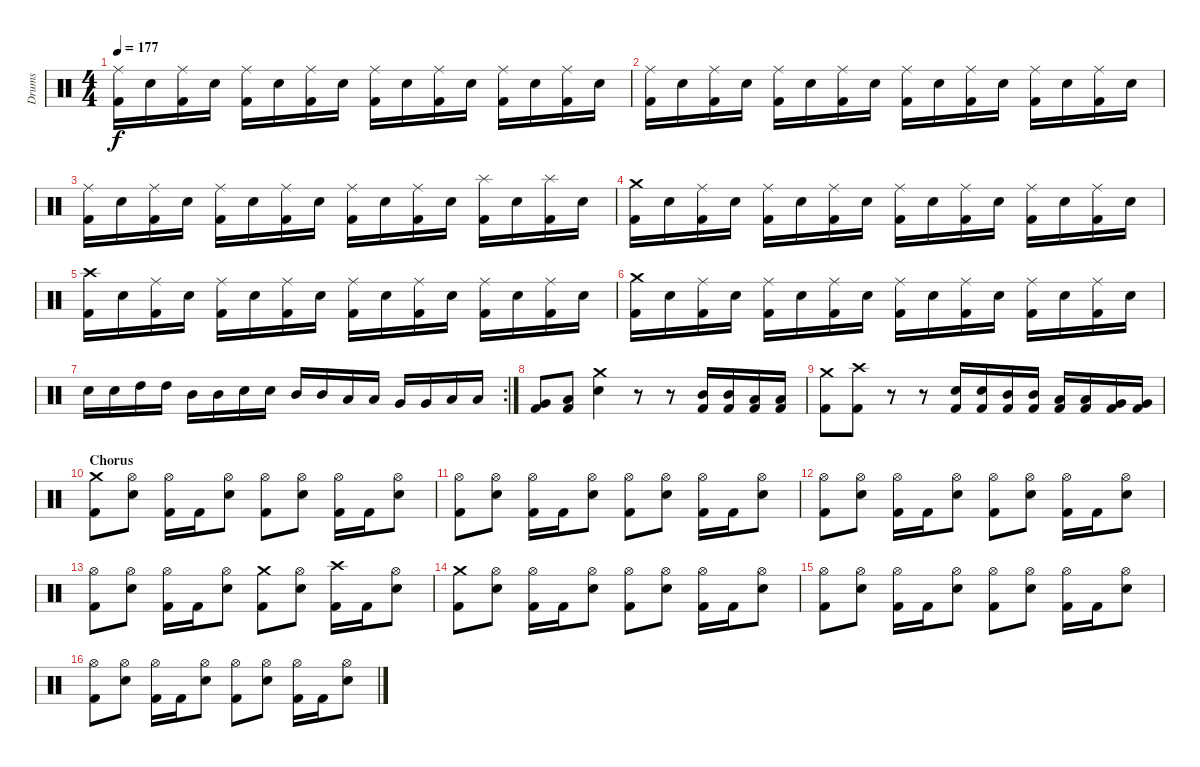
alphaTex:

\track ("Drums" "Drums") {instrument percussion}
\staff {score}
\articulation defaults
\ts (4 4)
\tempo 177
\clef neutral
\ks c
("Kick (hit) 2" "Ride (middle)").16{dy f} "Electric Snare (hit)".16 ("Kick (hit) 2" "Ride (middle)").16 "Electric Snare (hit)".16 ("Kick (hit) 2" "Ride (middle)").16 "Electric Snare (hit)".16 ("Kick (hit) 2" "Ride (middle)").16 "Electric Snare (hit)".16 ("Kick (hit) 2" "Ride (middle)").16 "Electric Snare (hit)".16 ("Kick (hit) 2" "Ride (middle)").16 "Electric Snare (hit)".16 ("Kick (hit) 2" "Ride (middle)").16 "Electric Snare (hit)".16 ("Kick (hit) 2" "Ride (middle)").16 "Electric Snare (hit)".16 |
("Kick (hit) 2" "Ride (middle)").16 "Electric Snare (hit)".16 ("Kick (hit) 2" "Ride (middle)").16 "Electric Snare (hit)".16 ("Kick (hit) 2" "Ride (middle)").16 "Electric Snare (hit)".16 ("Kick (hit) 2" "Ride (middle)").16 "Electric Snare (hit)".16 ("Kick (hit) 2" "Ride (middle)").16 "Electric Snare (hit)".16 ("Kick (hit) 2" "Ride (middle)").16 "Electric Snare (hit)".16 ("Kick (hit) 2" "Ride (middle)").16 "Electric Snare (hit)".16 ("Kick (hit) 2" "Ride (middle)").16 "Electric Snare (hit)".16 |
("Kick (hit) 2" "Ride (middle)").16 "Electric Snare (hit)".16 ("Kick (hit) 2" "Ride (middle)").16 "Electric Snare (hit)".16 ("Kick (hit) 2" "Ride (middle)").16 "Electric Snare (hit)".16 ("Kick (hit) 2" "Ride (middle)").16 "Electric Snare (hit)".16 ("Kick (hit) 2" "Ride (middle)").16 "Electric Snare (hit)".16 ("Kick (hit) 2" "Ride (middle)").16 "Electric Snare (hit)".16 ("Kick (hit) 2" "Splash (hit)").16 "Electric Snare (hit)".16 ("Kick (hit) 2" "Splash (hit)").16 "Electric Snare (hit)".16 |
("Kick (hit) 2" "Crash medium (hit)").16 "Electric Snare (hit)".16 ("Kick (hit) 2" "Ride (middle)").16 "Electric Snare (hit)".16 ("Kick (hit) 2" "Ride (middle)").16 "Electric Snare (hit)".16 ("Kick (hit) 2" "Ride (middle)").16 "Electric Snare (hit)".16 ("Kick (hit) 2" "Ride (middle)").16 "Electric Snare (hit)".16 ("Kick (hit) 2" "Ride (middle)").16 "Electric Snare (hit)".16 ("Kick (hit) 2" "Ride (middle)").16 "Electric Snare (hit)".16 ("Kick (hit) 2" "Ride (middle)").16 "Electric Snare (hit)".16 |
("Kick (hit) 2" "Crash high (hit)").16 "Electric Snare (hit)".16 ("Kick (hit) 2" "Ride (middle)").16 "Electric Snare (hit)".16 ("Kick (hit) 2" "Ride (middle)").16 "Electric Snare (hit)".16 ("Kick (hit) 2" "Ride (middle)").16 "Electric Snare (hit)".16 ("Kick (hit) 2" "Ride (middle)").16 "Electric Snare (hit)".16 ("Kick (hit) 2" "Ride (middle)").16 "Electric Snare (hit)".16 ("Kick (hit) 2" "Ride (middle)").16 "Electric Snare (hit)".16 ("Kick (hit) 2" "Ride (middle)").16 "Electric Snare (hit)".16 |
("Kick (hit) 2" "Crash medium (hit)").16 "Electric Snare (hit)".16 ("Kick (hit) 2" "Ride (middle)").16 "Electric Snare (hit)".16 ("Kick (hit) 2" "Ride (middle)").16 "Electric Snare (hit)".16 ("Kick (hit) 2" "Ride (middle)").16 "Electric Snare (hit)".16 ("Kick (hit) 2" "Ride (middle)").16 "Electric Snare (hit)".16 ("Kick (hit) 2" "Ride (middle)").16 "Electric Snare (hit)".16 ("Kick (hit) 2" "Ride (middle)").16 "Electric Snare (hit)".16 ("Kick (hit) 2" "Ride (middle)").16 "Electric Snare (hit)".16 |
\rc 2 "Electric Snare (hit)".16 "Electric Snare (hit)".16 "High Tom (hit)".16 "High Tom (hit)".16 "Mid Tom (hit)".16 "Mid Tom (hit)".16 "Electric Snare (hit)".16 "Electric Snare (hit)".16 "Mid Tom (hit)".16 "Mid Tom (hit)".16 "Low Tom (hit)".16 "Low Tom (hit)".16 "Very Low Tom (hit)".16 "Very Low Tom (hit)".16 "Low Floor Tom (hit)".16 "Low Floor Tom (hit)".16
|
("Kick (hit) 2" "Very Low Tom (hit)").8 ("Kick (hit) 2" "Low Tom (hit)").8 ("Electric Snare (hit)" "Crash medium (hit)").4 r.8 r.8 ("Kick (hit) 2" "Mid Tom (hit)").16 ("Kick (hit) 2" "Mid Tom (hit)").16 ("Kick (hit) 2" "Low Tom (hit)").16 ("Kick (hit) 2" "Low Tom (hit)").16 |
("Kick (hit) 2" "Crash medium (hit)").8 ("Kick (hit) 2" "Crash high (hit)").8 r.8 r.8 ("Kick (hit) 2" "Electric Snare (hit)").16 ("Kick (hit) 2" "Electric Snare (hit)").16 ("Kick (hit) 2" "Mid Tom (hit)").16 ("Kick (hit) 2" "Mid Tom (hit)").16 ("Kick (hit) 2" "Low Tom (hit)").16 ("Kick (hit) 2" "Low Tom (hit)").16 ("Kick (hit) 2" "Very Low Tom (hit)").16 ("Kick (hit) 2" "Very Low Tom (hit)").16 |
\section ("" "Chorus")
("Kick (hit) 2" "Crash medium (hit)").8 ("Electric Snare (hit)" "Hi-Hat (open)").8 ("Kick (hit) 2" "Hi-Hat (open)").16 "Kick (hit) 2".16 ("Electric Snare (hit)" "Hi-Hat (open)").8 ("Kick (hit) 2" "Hi-Hat (open)").8 ("Electric Snare (hit)" "Hi-Hat (open)").8 ("Kick (hit) 2" "Hi-Hat (open)").16 "Kick (hit) 2".16 ("Electric Snare (hit)" "Hi-Hat (open)").8 |
("Kick (hit) 2" "Hi-Hat (open)").8 ("Electric Snare (hit)" "Hi-Hat (open)").8 ("Kick (hit) 2" "Hi-Hat (open)").16 "Kick (hit) 2".16 ("Electric Snare (hit)" "Hi-Hat (open)").8 ("Kick (hit) 2" "Hi-Hat (open)").8 ("Electric Snare (hit)" "Hi-Hat (open)").8 ("Kick (hit) 2" "Hi-Hat (open)").16 "Kick (hit) 2".16 ("Electric Snare (hit)" "Hi-Hat (open)").8 |
("Kick (hit) 2" "Hi-Hat (open)").8 ("Electric Snare (hit)" "Hi-Hat (open)").8 ("Kick (hit) 2" "Hi-Hat (open)").16 "Kick (hit) 2".16 ("Electric Snare (hit)" "Hi-Hat (open)").8 ("Kick (hit) 2" "Hi-Hat (open)").8 ("Electric Snare (hit)" "Hi-Hat (open)").8 ("Kick (hit) 2" "Hi-Hat (open)").16 "Kick (hit) 2".16 ("Electric Snare (hit)" "Hi-Hat (open)").8 |
("Kick (hit) 2" "Hi-Hat (open)").8 ("Electric Snare (hit)" "Hi-Hat (open)").8 ("Kick (hit) 2" "Hi-Hat (open)").16 "Kick (hit) 2".16 ("Electric Snare (hit)" "Hi-Hat (open)").8 ("Kick (hit) 2" "Crash medium (hit)").8 ("Electric Snare (hit)" "Hi-Hat (open)").8 ("Kick (hit) 2" "Crash high (hit)").16 "Kick (hit) 2".16 ("Electric Snare (hit)" "Hi-Hat (open)").8 |
("Kick (hit) 2" "Crash medium (hit)").8 ("Electric Snare (hit)" "Hi-Hat (open)").8 ("Kick (hit) 2" "Hi-Hat (open)").16 "Kick (hit) 2".16 ("Electric Snare (hit)" "Hi-Hat (open)").8 ("Kick (hit) 2" "Hi-Hat (open)").8 ("Electric Snare (hit)" "Hi-Hat (open)").8 ("Kick (hit) 2" "Hi-Hat (open)").16 "Kick (hit) 2".16 ("Electric Snare (hit)" "Hi-Hat (open)").8 |
("Kick (hit) 2" "Hi-Hat (open)").8 ("Electric Snare (hit)" "Hi-Hat (open)").8 ("Kick (hit) 2" "Hi-Hat (open)").16 "Kick (hit) 2".16 ("Electric Snare (hit)" "Hi-Hat (open)").8 ("Kick (hit) 2" "Hi-Hat (open)").8 ("Electric Snare (hit)" "Hi-Hat (open)").8 ("Kick (hit) 2" "Hi-Hat (open)").16 "Kick (hit) 2".16 ("Electric Snare (hit)" "Hi-Hat (open)").8 |
("Kick (hit) 2" "Hi-Hat (open)").8 ("Electric Snare (hit)" "Hi-Hat (open)").8 ("Kick (hit) 2" "Hi-Hat (open)").16 "Kick (hit) 2".16 ("Electric Snare (hit)" "Hi-Hat (open)").8 ("Kick (hit) 2" "Hi-Hat (open)").8 ("Electric Snare (hit)" "Hi-Hat (open)").8 ("Kick (hit) 2" "Hi-Hat (open)").16 "Kick (hit) 2".16 ("Electric Snare (hit)" "Hi-Hat (open)").8
